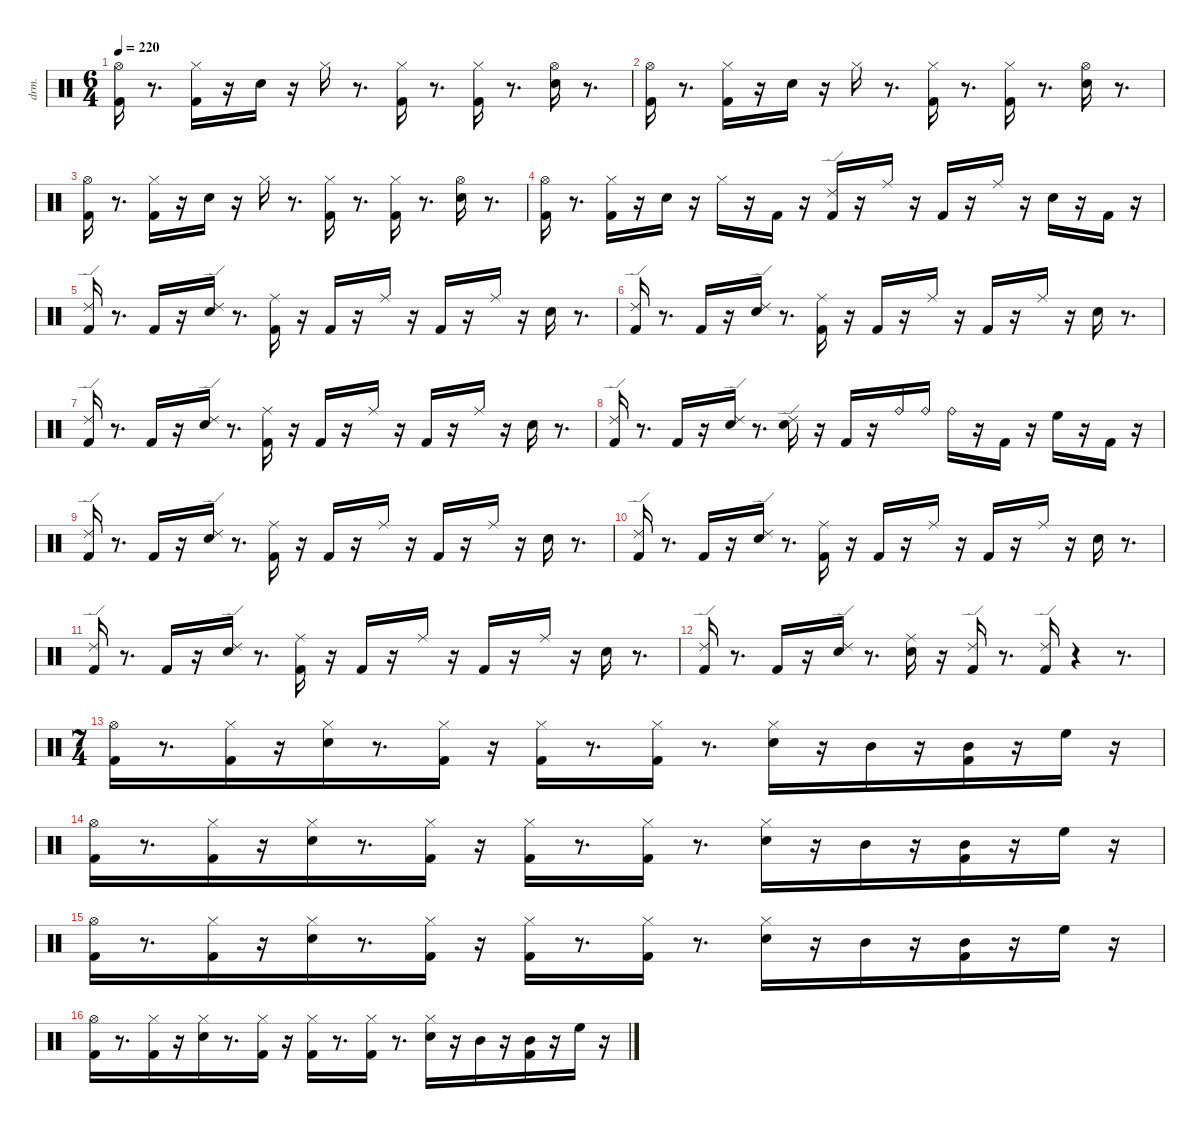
\defaultSystemsLayout 4
\hideDynamics
\bracketExtendMode nobrackets
\otherSystemsTrackNameOrientation horizontal
\track ("EZdrummer 3" "drm.") {instrument percussion}
\staff {score}
\articulation defaults
\ts (6 4)
\tempo 220
\clef neutral
\ks c
("Kick (hit) 2" "Hi-Hat (open)"{acc #}).16{dy fff beam Down} r.8{d beam Down} ("Kick (hit) 2" "Hi-Hat (closed)"{acc #}).16{dy f beam Down} r.16{beam Down} "Snare (hit) 2".16{dy ff beam Down} r.16{beam Down} "Hi-Hat (closed)"{acc #}.16{beam Down} r.8{d beam Down} ("Kick (hit) 2" "Hi-Hat (closed)"{acc #}).16{beam Down} r.8{d beam Down} ("Kick (hit) 2" "Hi-Hat (closed)"{acc #}).16{dy f beam Down} r.8{d beam Down} ("Snare (hit) 2" "Hi-Hat (open)"{acc #}).16{dy ff beam Down} r.8{d beam Down} |
("Kick (hit) 2" "Hi-Hat (open)"{acc #}).16{dy fff beam Down} r.8{d beam Down} ("Kick (hit) 2" "Hi-Hat (closed)"{acc #}).16{dy f beam Down} r.16{beam Down} "Snare (hit) 2".16{dy ff beam Down} r.16{beam Down} "Hi-Hat (closed)"{acc #}.16{beam Down} r.8{d beam Down} ("Kick (hit) 2" "Hi-Hat (closed)"{acc #}).16{beam Down} r.8{d beam Down} ("Kick (hit) 2" "Hi-Hat (closed)"{acc #}).16{dy f beam Down} r.8{d beam Down} ("Snare (hit) 2" "Hi-Hat (open)"{acc #}).16{dy ff beam Down} r.8{d beam Down} |
("Kick (hit) 2" "Hi-Hat (open)"{acc #}).16{dy fff beam Down} r.8{d beam Down} ("Kick (hit) 2" "Hi-Hat (closed)"{acc #}).16{dy f beam Down} r.16{beam Down} "Snare (hit) 2".16{dy ff beam Down} r.16{beam Down} "Hi-Hat (closed)"{acc #}.16{beam Down} r.8{d beam Down} ("Kick (hit) 2" "Hi-Hat (closed)"{acc #}).16{beam Down} r.8{d beam Down} ("Kick (hit) 2" "Hi-Hat (closed)"{acc #}).16{dy f beam Down} r.8{d beam Down} ("Snare (hit) 2" "Hi-Hat (open)"{acc #}).16{dy ff beam Down} r.8{d beam Down} |
("Kick (hit) 2" "Hi-Hat (open)"{acc #}).16{dy fff beam Down} r.8{d beam Down} ("Kick (hit) 2" "Hi-Hat (closed)"{acc #}).16{dy f beam Down} r.16{beam Down} "Snare (hit) 2".16{dy ff beam Down} r.16{beam Down} "Hi-Hat (closed)"{acc #}.16{beam Down} r.16{beam Down} "Kick (hit) 2".16{dy mp beam Up} r.16{beam Up} ("Kick (hit) 2" "Ride (edge) 2").16{dy ff beam Up} r.16{beam Up} "Ride (middle)"{acc #}.16{dy p beam Down} r.16{beam Down} "Kick (hit) 2".16{dy f beam Up} r.16{beam Up} "Ride (middle)"{acc #}.16{dy ff beam Down} r.16{beam Down} "Snare (hit) 2".16{beam Down} r.16{beam Down} "Kick (hit) 2".16{dy mp beam Up} r.16{beam Up} |
("Kick (hit) 2" "Ride (edge) 2").16{dy fff beam Up} r.8{d beam Up} "Kick (hit) 2".16{dy f beam Up} r.16{beam Up} ("Snare (hit) 2" "Ride (edge) 2").16{dy ff beam Down} r.8{d beam Down} ("Kick (hit) 2" "Ride (middle)"{acc #}).16{dy mf beam Down} r.16{beam Down} "Kick (hit) 2".16{dy fff beam Up} r.16{beam Up} "Ride (middle)"{acc #}.16{dy f beam Down} r.16{beam Down} "Kick (hit) 2".16{beam Up} r.16{beam Up} "Ride (middle)"{acc #}.16{beam Down} r.16{beam Down} "Snare (hit) 2".16{dy fff beam Down} r.8{d beam Down} |
("Kick (hit) 2" "Ride (edge) 2").16{beam Up} r.8{d beam Up} "Kick (hit) 2".16{dy f beam Up} r.16{beam Up} ("Snare (hit) 2" "Ride (edge) 2").16{dy ff beam Down} r.8{d beam Down} ("Kick (hit) 2" "Ride (middle)"{acc #}).16{dy mf beam Down} r.16{beam Down} "Kick (hit) 2".16{dy fff beam Up} r.16{beam Up} "Ride (middle)"{acc #}.16{dy f beam Down} r.16{beam Down} "Kick (hit) 2".16{beam Up} r.16{beam Up} "Ride (middle)"{acc #}.16{beam Down} r.16{beam Down} "Snare (hit) 2".16{dy fff beam Down} r.8{d beam Down} |
("Kick (hit) 2" "Ride (edge) 2").16{beam Up} r.8{d beam Up} "Kick (hit) 2".16{dy f beam Up} r.16{beam Up} ("Snare (hit) 2" "Ride (edge) 2").16{dy ff beam Down} r.8{d beam Down} ("Kick (hit) 2" "Ride (middle)"{acc #}).16{dy mf beam Down} r.16{beam Down} "Kick (hit) 2".16{dy fff beam Up} r.16{beam Up} "Ride (middle)"{acc #}.16{dy f beam Down} r.16{beam Down} "Kick (hit) 2".16{beam Up} r.16{beam Up} "Ride (middle)"{acc #}.16{beam Down} r.16{beam Down} "Snare (hit) 2".16{dy fff beam Down} r.8{d beam Down} |
("Kick (hit) 2" "Ride (edge) 2").16{beam Up} r.8{d beam Up} "Kick (hit) 2".16{dy f beam Up} r.16{beam Up} ("Snare (hit) 2" "Ride (edge) 2").16{dy ff beam Down} r.8{d beam Down} ("Snare (hit) 2" "Ride (edge) 2").16{dy fff beam Down} r.16{beam Down} "Kick (hit) 2".16{beam Up} r.16{beam Up} "Ride (bell)".16{dy ff beam Down} "Ride (bell)".16{beam Down} "Ride (bell)".16{dy fff beam Down} r.16{beam Down} "Kick (hit) 2".16{dy f beam Up} r.16{beam Up} "High Floor Tom (hit)".16{dy ff beam Down} r.16{beam Down} "Kick (hit) 2".16{dy mf beam Up} r.16{beam Up} |
("Kick (hit) 2" "Ride (edge) 2").16{dy fff beam Up} r.8{d beam Up} "Kick (hit) 2".16{dy mf beam Up} r.16{beam Up} ("Snare (hit) 2" "Ride (edge) 2").16{dy ff beam Down} r.8{d beam Down} ("Kick (hit) 2" "Ride (middle)"{acc #}).16{dy mf beam Down} r.16{beam Down} "Kick (hit) 2".16{dy fff beam Up} r.16{beam Up} "Ride (middle)"{acc #}.16{dy f beam Down} r.16{beam Down} "Kick (hit) 2".16{beam Up} r.16{beam Up} "Ride (middle)"{acc #}.16{beam Down} r.16{beam Down} "Snare (hit) 2".16{dy fff beam Down} r.8{d beam Down} |
("Kick (hit) 2" "Ride (edge) 2").16{beam Up} r.8{d beam Up} "Kick (hit) 2".16{dy f beam Up} r.16{beam Up} ("Snare (hit) 2" "Ride (edge) 2").16{dy ff beam Down} r.8{d beam Down} ("Kick (hit) 2" "Ride (middle)"{acc #}).16{dy mf beam Down} r.16{beam Down} "Kick (hit) 2".16{dy fff beam Up} r.16{beam Up} "Ride (middle)"{acc #}.16{dy f beam Down} r.16{beam Down} "Kick (hit) 2".16{beam Up} r.16{beam Up} "Ride (middle)"{acc #}.16{beam Down} r.16{beam Down} "Snare (hit) 2".16{dy fff beam Down} r.8{d beam Down} |
("Kick (hit) 2" "Ride (edge) 2").16{beam Up} r.8{d beam Up} "Kick (hit) 2".16{dy f beam Up} r.16{beam Up} ("Snare (hit) 2" "Ride (edge) 2").16{dy ff beam Down} r.8{d beam Down} ("Kick (hit) 2" "Ride (middle)"{acc #}).16{dy mf beam Down} r.16{beam Down} "Kick (hit) 2".16{dy fff beam Up} r.16{beam Up} "Ride (middle)"{acc #}.16{dy f beam Down} r.16{beam Down} "Kick (hit) 2".16{beam Up} r.16{beam Up} "Ride (middle)"{acc #}.16{beam Down} r.16{beam Down} "Snare (hit) 2".16{dy fff beam Down} r.8{d beam Down} |
("Kick (hit) 2" "Ride (edge) 2").16{beam Up} r.8{d beam Up} "Kick (hit) 2".16{dy f beam Up} r.16{beam Up} ("Snare (hit) 2" "Ride (edge) 2").16{dy ff beam Down} r.8{d beam Down} ("Snare (hit) 2" "Ride (middle)"{acc #}).16{dy fff beam Down} r.16{beam Down} ("Kick (hit) 2" "Ride (edge) 2").16{dy ff beam Up} r.8{d beam Up} ("Kick (hit) 2" "Ride (edge) 2").16{dy fff beam Up} r.4{beam Up} r.8{d beam Up} |
\ts (7 4)
\beaming (8 6 4 4)
("Kick (hit) 2" "Hi-Hat (open)"{acc #}).16{beam Down} r.8{d beam Down} ("Kick (hit) 2" "Hi-Hat (closed)"{acc #}).16{dy f beam Down} r.16{beam Down} ("Snare (hit) 2" "Hi-Hat (closed)"{acc #}).16{dy ff beam Down} r.8{d beam Down} ("Kick (hit) 2" "Hi-Hat (closed)"{acc #}).16{dy f beam Down} r.16{beam Down} ("Kick (hit) 2" "Hi-Hat (closed)"{acc #}).16{dy ff beam Down} r.8{d beam Down} ("Kick (hit) 2" "Hi-Hat (closed)"{acc #}).16{dy f beam Down} r.8{d beam Down} ("Snare (hit) 2" "Hi-Hat (closed)"{acc #}).16{dy fff beam Down} r.16{beam Down} "Mid Tom (hit)".16{dy f beam Down} r.16{beam Down} ("Kick (hit) 2" "Mid Tom (hit)").16{beam Up} r.16{beam Up} "High Floor Tom (hit)".16{beam Down} r.16{beam Down} |
("Kick (hit) 2" "Hi-Hat (open)"{acc #}).16{dy fff beam Down} r.8{d beam Down} ("Kick (hit) 2" "Hi-Hat (closed)"{acc #}).16{dy f beam Down} r.16{beam Down} ("Snare (hit) 2" "Hi-Hat (closed)"{acc #}).16{dy ff beam Down} r.8{d beam Down} ("Kick (hit) 2" "Hi-Hat (closed)"{acc #}).16{dy f beam Down} r.16{beam Down} ("Kick (hit) 2" "Hi-Hat (closed)"{acc #}).16{dy ff beam Down} r.8{d beam Down} ("Kick (hit) 2" "Hi-Hat (closed)"{acc #}).16{dy f beam Down} r.8{d beam Down} ("Snare (hit) 2" "Hi-Hat (closed)"{acc #}).16{dy fff beam Down} r.16{beam Down} "Mid Tom (hit)".16{dy f beam Down} r.16{beam Down} ("Kick (hit) 2" "Mid Tom (hit)").16{beam Up} r.16{beam Up} "High Floor Tom (hit)".16{beam Down} r.16{beam Down} |
("Kick (hit) 2" "Hi-Hat (open)"{acc #}).16{dy fff beam Down} r.8{d beam Down} ("Kick (hit) 2" "Hi-Hat (closed)"{acc #}).16{dy f beam Down} r.16{beam Down} ("Snare (hit) 2" "Hi-Hat (closed)"{acc #}).16{dy ff beam Down} r.8{d beam Down} ("Kick (hit) 2" "Hi-Hat (closed)"{acc #}).16{dy f beam Down} r.16{beam Down} ("Kick (hit) 2" "Hi-Hat (closed)"{acc #}).16{dy ff beam Down} r.8{d beam Down} ("Kick (hit) 2" "Hi-Hat (closed)"{acc #}).16{dy f beam Down} r.8{d beam Down} ("Snare (hit) 2" "Hi-Hat (closed)"{acc #}).16{dy fff beam Down} r.16{beam Down} "Mid Tom (hit)".16{dy f beam Down} r.16{beam Down} ("Kick (hit) 2" "Mid Tom (hit)").16{beam Up} r.16{beam Up} "High Floor Tom (hit)".16{beam Down} r.16{beam Down} |
("Kick (hit) 2" "Hi-Hat (open)"{acc #}).16{dy fff beam Down} r.8{d beam Down} ("Kick (hit) 2" "Hi-Hat (closed)"{acc #}).16{dy f beam Down} r.16{beam Down} ("Snare (hit) 2" "Hi-Hat (closed)"{acc #}).16{dy ff beam Down} r.8{d beam Down} ("Kick (hit) 2" "Hi-Hat (closed)"{acc #}).16{dy f beam Down} r.16{beam Down} ("Kick (hit) 2" "Hi-Hat (closed)"{acc #}).16{dy ff beam Down} r.8{d beam Down} ("Kick (hit) 2" "Hi-Hat (closed)"{acc #}).16{dy f beam Down} r.8{d beam Down} ("Snare (hit) 2" "Hi-Hat (closed)"{acc #}).16{dy fff beam Down} r.16{beam Down} "Mid Tom (hit)".16{dy f beam Down} r.16{beam Down} ("Kick (hit) 2" "Mid Tom (hit)").16{beam Up} r.16{beam Up} "High Floor Tom (hit)".16{beam Down} r.16{beam Down}
